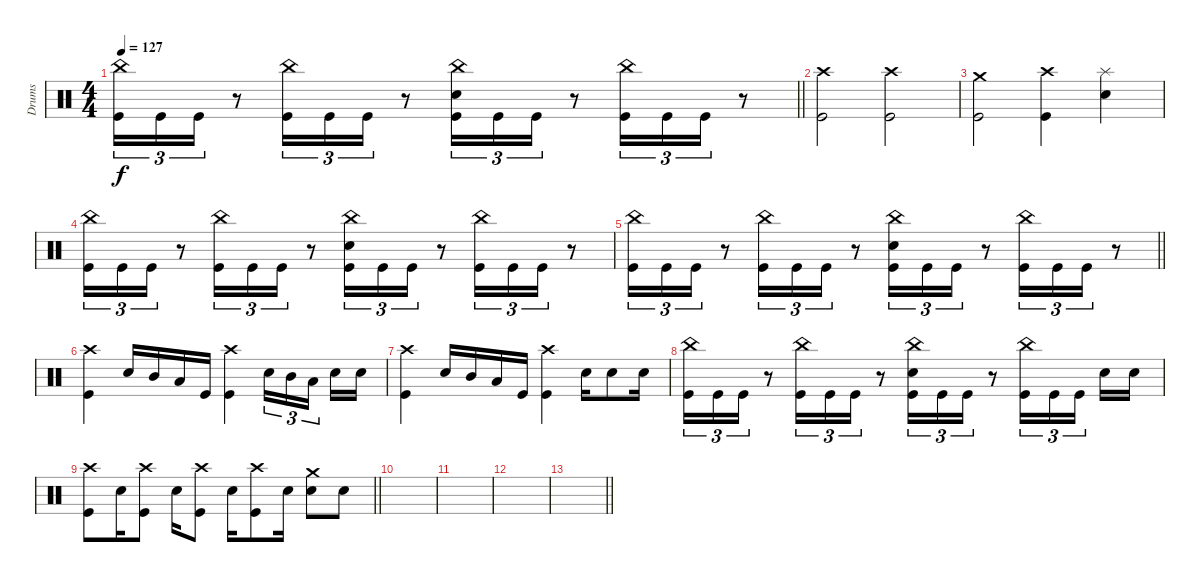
\track ("Drums" "Drums") {instrument percussion}
\staff
\articulation defaults
\ts (4 4)
\tempo 127
\clef neutral
\barLineRight lightlight
\ks c
("China (hit)" "Kick (hit)").16{tu (3 2) dy f} "Kick (hit)".16{tu (3 2)} "Kick (hit)".16{tu (3 2)} r.8 ("China (hit)" "Kick (hit)").16{tu (3 2)} "Kick (hit)".16{tu (3 2)} "Kick (hit)".16{tu (3 2)} r.8 ("China (hit)" "Electric Snare (hit)" "Kick (hit)").16{tu (3 2)} "Kick (hit)".16{tu (3 2)} "Kick (hit)".16{tu (3 2)} r.8 ("China (hit)" "Kick (hit)").16{tu (3 2)} "Kick (hit)".16{tu (3 2)} "Kick (hit)".16{tu (3 2)} r.8 |
("Crash high (hit)" "Kick (hit)").2 ("Crash high (hit)" "Kick (hit)").2 |
("Crash medium (hit)" "Kick (hit)").2 ("Crash high (hit)" "Kick (hit)").4 ("Splash (hit)" "Electric Snare (hit)").4 |
("China (hit)" "Kick (hit)").16{tu (3 2)} "Kick (hit)".16{tu (3 2)} "Kick (hit)".16{tu (3 2)} r.8 ("China (hit)" "Kick (hit)").16{tu (3 2)} "Kick (hit)".16{tu (3 2)} "Kick (hit)".16{tu (3 2)} r.8 ("China (hit)" "Electric Snare (hit)" "Kick (hit)").16{tu (3 2)} "Kick (hit)".16{tu (3 2)} "Kick (hit)".16{tu (3 2)} r.8 ("China (hit)" "Kick (hit)").16{tu (3 2)} "Kick (hit)".16{tu (3 2)} "Kick (hit)".16{tu (3 2)} r.8 |
\barLineRight lightlight
("China (hit)" "Kick (hit)").16{tu (3 2)} "Kick (hit)".16{tu (3 2)} "Kick (hit)".16{tu (3 2)} r.8 ("China (hit)" "Kick (hit)").16{tu (3 2)} "Kick (hit)".16{tu (3 2)} "Kick (hit)".16{tu (3 2)} r.8 ("China (hit)" "Electric Snare (hit)" "Kick (hit)").16{tu (3 2)} "Kick (hit)".16{tu (3 2)} "Kick (hit)".16{tu (3 2)} r.8 ("China (hit)" "Kick (hit)").16{tu (3 2)} "Kick (hit)".16{tu (3 2)} "Kick (hit)".16{tu (3 2)} r.8 |
("Crash high (hit)" "Kick (hit)").4 "Electric Snare (hit)".16 "Mid Tom (hit)".16 "Low Tom (hit)".16 "Kick (hit)".16 ("Crash high (hit)" "Kick (hit)").4 "Electric Snare (hit)".16{tu (3 2)} "Mid Tom (hit)".16{tu (3 2)} "Low Tom (hit)".16{tu (3 2) beam splitsecondary} "Electric Snare (hit)".16 "Electric Snare (hit)".16 |
("Crash high (hit)" "Kick (hit)").4 "Electric Snare (hit)".16 "Mid Tom (hit)".16 "Low Tom (hit)".16 "Kick (hit)".16 ("Crash high (hit)" "Kick (hit)").4 "Electric Snare (hit)".16 "Electric Snare (hit)".8 "Electric Snare (hit)".16 |
("China (hit)" "Kick (hit)").16{tu (3 2)} "Kick (hit)".16{tu (3 2)} "Kick (hit)".16{tu (3 2)} r.8 ("China (hit)" "Kick (hit)").16{tu (3 2)} "Kick (hit)".16{tu (3 2)} "Kick (hit)".16{tu (3 2)} r.8 ("China (hit)" "Electric Snare (hit)" "Kick (hit)").16{tu (3 2)} "Kick (hit)".16{tu (3 2)} "Kick (hit)".16{tu (3 2)} r.8 ("China (hit)" "Kick (hit)").16{tu (3 2)} "Kick (hit)".16{tu (3 2)} "Kick (hit)".16{tu (3 2) beam splitsecondary} "Electric Snare (hit)".16 "Electric Snare (hit)".16 |
\barLineRight lightlight
("Crash high (hit)" "Kick (hit)").8 "Electric Snare (hit)".16 ("Crash high (hit)" "Kick (hit)").8 "Electric Snare (hit)".16 ("Crash high (hit)" "Kick (hit)").8 "Electric Snare (hit)".16 ("Crash high (hit)" "Kick (hit)").8 "Electric Snare (hit)".16 ("Crash medium (hit)" "Electric Snare (hit)").8 "Electric Snare (hit)".8 |
|
|
|
\barLineRight lightlight
